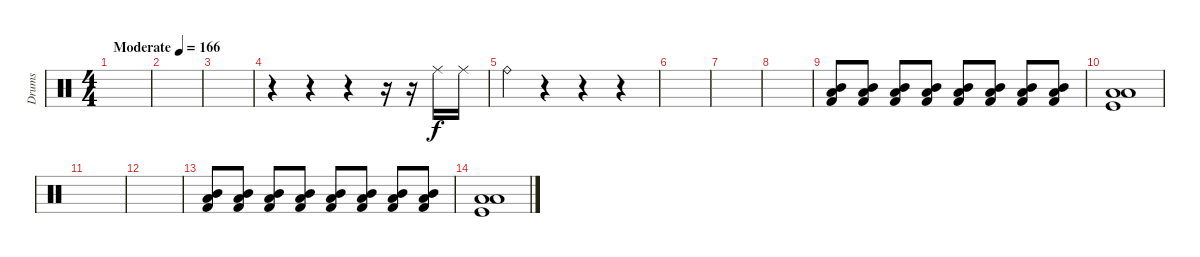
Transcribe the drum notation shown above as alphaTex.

\track ("Drums" "Drums") {instrument percussion}
\staff {score}
\articulation defaults
\ts (4 4)
\tempo (166 "Moderate")
\clef neutral
\ks c
|
|
|
r.4 r.4 r.4 r.16 r.16 "Ride (middle)".16 "Ride (middle)".16 |
"Ride (bell)".4 r.4 r.4 r.4 |
|
|
|
("Mid Tom (hit)" "Low Floor Tom (hit)" "Kick (hit) 2").8 ("Mid Tom (hit)" "Low Floor Tom (hit)" "Kick (hit) 2").8 ("Mid Tom (hit)" "Low Floor Tom (hit)" "Kick (hit) 2").8 ("Mid Tom (hit)" "Low Floor Tom (hit)" "Kick (hit) 2").8 ("Mid Tom (hit)" "Low Floor Tom (hit)" "Kick (hit) 2").8 ("Mid Tom (hit)" "Low Floor Tom (hit)" "Kick (hit) 2").8 ("Mid Tom (hit)" "Low Floor Tom (hit)" "Kick (hit) 2").8 ("Mid Tom (hit)" "Low Floor Tom (hit)" "Kick (hit) 2").8 |
("Low Tom (hit)" "Low Floor Tom (hit)" "Kick (hit)").1 |
|
|
("Mid Tom (hit)" "Low Floor Tom (hit)" "Kick (hit) 2").8 ("Mid Tom (hit)" "Low Floor Tom (hit)" "Kick (hit) 2").8 ("Mid Tom (hit)" "Low Floor Tom (hit)" "Kick (hit) 2").8 ("Mid Tom (hit)" "Low Floor Tom (hit)" "Kick (hit) 2").8 ("Mid Tom (hit)" "Low Floor Tom (hit)" "Kick (hit) 2").8 ("Mid Tom (hit)" "Low Floor Tom (hit)" "Kick (hit) 2").8 ("Mid Tom (hit)" "Low Floor Tom (hit)" "Kick (hit) 2").8 ("Mid Tom (hit)" "Low Floor Tom (hit)" "Kick (hit) 2").8 |
("Low Tom (hit)" "Low Floor Tom (hit)" "Kick (hit)").1
